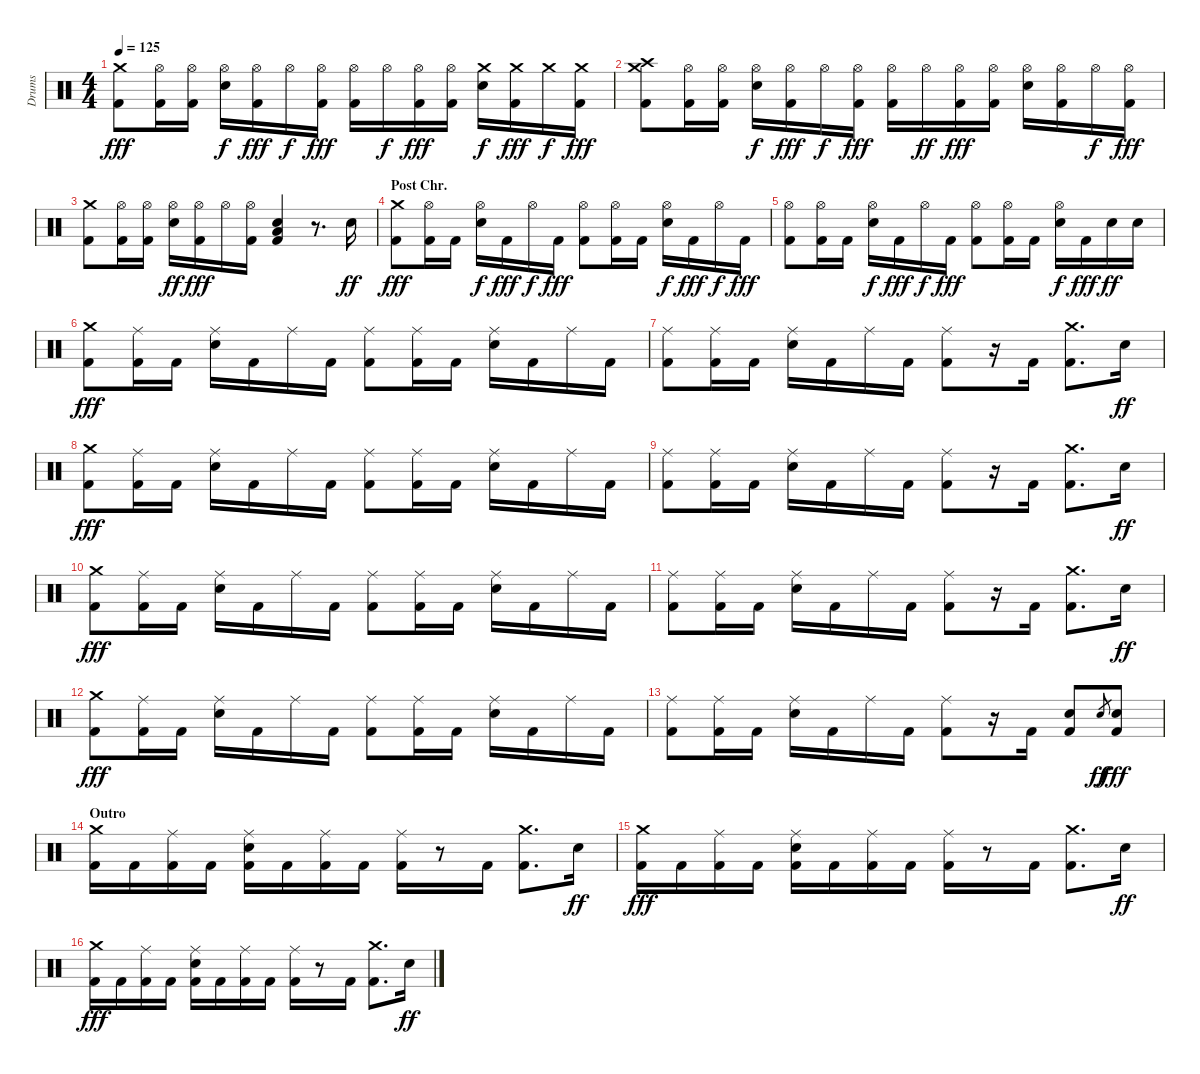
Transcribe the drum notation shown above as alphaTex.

\track ("Drums" "Drums") {instrument percussion}
\staff {score}
\articulation defaults
\ts (4 4)
\tempo 125
\clef neutral
\ks c
("Crash medium (hit)" "Kick (hit) 2").8{dy fff} ("Hi-Hat (open)" "Kick (hit) 2").16 ("Hi-Hat (open)" "Kick (hit) 2").16 ("Hi-Hat (open)" "Electric Snare (hit)").16{dy f} ("Hi-Hat (open)" "Kick (hit) 2").16{dy fff} "Hi-Hat (open)".16{dy f} ("Hi-Hat (open)" "Kick (hit) 2").16{dy fff} ("Hi-Hat (open)" "Kick (hit) 2").16 "Hi-Hat (open)".16{dy f} ("Hi-Hat (open)" "Kick (hit) 2").16{dy fff} ("Hi-Hat (open)" "Kick (hit) 2").16 ("Crash medium (hit)" "Electric Snare (hit)").16{dy f} ("Crash medium (hit)" "Kick (hit) 2").16{dy fff} "Crash medium (hit)".16{dy f} ("Crash medium (hit)" "Kick (hit) 2").16{dy fff} |
("Crash medium (hit)" "Crash high (hit)" "Kick (hit) 2").8 ("Hi-Hat (open)" "Kick (hit) 2").16 ("Hi-Hat (open)" "Kick (hit) 2").16 ("Hi-Hat (open)" "Electric Snare (hit)").16{dy f} ("Hi-Hat (open)" "Kick (hit) 2").16{dy fff} "Hi-Hat (open)".16{dy f} ("Hi-Hat (open)" "Kick (hit) 2").16{dy fff} ("Hi-Hat (open)" "Kick (hit) 2").16 "Hi-Hat (open)".16{dy ff} ("Hi-Hat (open)" "Kick (hit) 2").16{dy fff} ("Hi-Hat (open)" "Kick (hit) 2").16 ("Hi-Hat (open)" "Electric Snare (hit)").16 ("Hi-Hat (open)" "Kick (hit) 2").16 "Hi-Hat (open)".16{dy f} ("Hi-Hat (open)" "Kick (hit) 2").16{dy fff} |
("Crash medium (hit)" "Kick (hit) 2").8 ("Hi-Hat (open)" "Kick (hit) 2").16 ("Hi-Hat (open)" "Kick (hit) 2").16 ("Hi-Hat (open)" "Electric Snare (hit)").16{dy ff} ("Hi-Hat (open)" "Kick (hit) 2").16{dy fff} "Hi-Hat (open)".16 ("Hi-Hat (open)" "Kick (hit) 2").16 ("Electric Snare (hit)" "Low Tom (hit)" "Kick (hit) 2").4 r.8{d} "Electric Snare (hit)".16{dy ff} |
\section ("" "Post Chr.")
("Crash medium (hit)" "Kick (hit) 2").8{dy fff} ("Hi-Hat (open)" "Kick (hit) 2").16 "Kick (hit) 2".16 ("Hi-Hat (open)" "Electric Snare (hit)").16{dy f} "Kick (hit) 2".16{dy fff} "Hi-Hat (open)".16{dy f} "Kick (hit) 2".16{dy fff} ("Hi-Hat (open)" "Kick (hit) 2").8 ("Hi-Hat (open)" "Kick (hit) 2").16 "Kick (hit) 2".16 ("Hi-Hat (open)" "Electric Snare (hit)").16{dy f} "Kick (hit) 2".16{dy fff} "Hi-Hat (open)".16{dy f} "Kick (hit) 2".16{dy fff} |
("Hi-Hat (open)" "Kick (hit) 2").8 ("Hi-Hat (open)" "Kick (hit) 2").16 "Kick (hit) 2".16 ("Hi-Hat (open)" "Electric Snare (hit)").16{dy f} "Kick (hit) 2".16{dy fff} "Hi-Hat (open)".16{dy f} "Kick (hit) 2".16{dy fff} ("Hi-Hat (open)" "Kick (hit) 2").8 ("Hi-Hat (open)" "Kick (hit) 2").16 "Kick (hit) 2".16 ("Hi-Hat (open)" "Electric Snare (hit)").16{dy f} "Kick (hit) 2".16{dy fff} "Electric Snare (hit)".16{dy ff} "Electric Snare (hit)".16 |
("Crash medium (hit)" "Kick (hit) 2").8{dy fff} ("Ride (middle)" "Kick (hit) 2").16 "Kick (hit) 2".16 ("Ride (middle)" "Electric Snare (hit)").16 "Kick (hit) 2".16 "Ride (middle)".16 "Kick (hit) 2".16 ("Ride (middle)" "Kick (hit) 2").8 ("Ride (middle)" "Kick (hit) 2").16 "Kick (hit) 2".16 ("Ride (middle)" "Electric Snare (hit)").16 "Kick (hit) 2".16 "Ride (middle)".16 "Kick (hit) 2".16 |
("Ride (middle)" "Kick (hit) 2").8 ("Ride (middle)" "Kick (hit) 2").16 "Kick (hit) 2".16 ("Ride (middle)" "Electric Snare (hit)").16 "Kick (hit) 2".16 "Ride (middle)".16 "Kick (hit) 2".16 ("Ride (middle)" "Kick (hit) 2").8 r.16 "Kick (hit) 2".16 ("Crash medium (hit)" "Kick (hit) 2").8{d} "Electric Snare (hit)".16{dy ff} |
("Crash medium (hit)" "Kick (hit) 2").8{dy fff} ("Ride (middle)" "Kick (hit) 2").16 "Kick (hit) 2".16 ("Ride (middle)" "Electric Snare (hit)").16 "Kick (hit) 2".16 "Ride (middle)".16 "Kick (hit) 2".16 ("Ride (middle)" "Kick (hit) 2").8 ("Ride (middle)" "Kick (hit) 2").16 "Kick (hit) 2".16 ("Ride (middle)" "Electric Snare (hit)").16 "Kick (hit) 2".16 "Ride (middle)".16 "Kick (hit) 2".16 |
("Ride (middle)" "Kick (hit) 2").8 ("Ride (middle)" "Kick (hit) 2").16 "Kick (hit) 2".16 ("Ride (middle)" "Electric Snare (hit)").16 "Kick (hit) 2".16 "Ride (middle)".16 "Kick (hit) 2".16 ("Ride (middle)" "Kick (hit) 2").8 r.16 "Kick (hit) 2".16 ("Crash medium (hit)" "Kick (hit) 2").8{d} "Electric Snare (hit)".16{dy ff} |
("Crash medium (hit)" "Kick (hit) 2").8{dy fff} ("Ride (middle)" "Kick (hit) 2").16 "Kick (hit) 2".16 ("Ride (middle)" "Electric Snare (hit)").16 "Kick (hit) 2".16 "Ride (middle)".16 "Kick (hit) 2".16 ("Ride (middle)" "Kick (hit) 2").8 ("Ride (middle)" "Kick (hit) 2").16 "Kick (hit) 2".16 ("Ride (middle)" "Electric Snare (hit)").16 "Kick (hit) 2".16 "Ride (middle)".16 "Kick (hit) 2".16 |
("Ride (middle)" "Kick (hit) 2").8 ("Ride (middle)" "Kick (hit) 2").16 "Kick (hit) 2".16 ("Ride (middle)" "Electric Snare (hit)").16 "Kick (hit) 2".16 "Ride (middle)".16 "Kick (hit) 2".16 ("Ride (middle)" "Kick (hit) 2").8 r.16 "Kick (hit) 2".16 ("Crash medium (hit)" "Kick (hit) 2").8{d} "Electric Snare (hit)".16{dy ff} |
("Crash medium (hit)" "Kick (hit) 2").8{dy fff} ("Ride (middle)" "Kick (hit) 2").16 "Kick (hit) 2".16 ("Ride (middle)" "Electric Snare (hit)").16 "Kick (hit) 2".16 "Ride (middle)".16 "Kick (hit) 2".16 ("Ride (middle)" "Kick (hit) 2").8 ("Ride (middle)" "Kick (hit) 2").16 "Kick (hit) 2".16 ("Ride (middle)" "Electric Snare (hit)").16 "Kick (hit) 2".16 "Ride (middle)".16 "Kick (hit) 2".16 |
("Ride (middle)" "Kick (hit) 2").8 ("Ride (middle)" "Kick (hit) 2").16 "Kick (hit) 2".16 ("Ride (middle)" "Electric Snare (hit)").16 "Kick (hit) 2".16 "Ride (middle)".16 "Kick (hit) 2".16 ("Ride (middle)" "Kick (hit) 2").8 r.16 "Kick (hit) 2".16 ("Electric Snare (hit)" "Kick (hit) 2").8 "Electric Snare (hit)".8{gr dy ff} ("Electric Snare (hit)" "Kick (hit) 2").8{dy fff} |
\section ("" "Outro")
("Crash medium (hit)" "Kick (hit) 2").16 "Kick (hit) 2".16 ("Ride (middle)" "Kick (hit) 2").16 "Kick (hit) 2".16 ("Ride (middle)" "Electric Snare (hit)" "Kick (hit) 2").16 "Kick (hit) 2".16 ("Ride (middle)" "Kick (hit) 2").16 "Kick (hit) 2".16 ("Ride (middle)" "Kick (hit) 2").16 r.8 "Kick (hit) 2".16 ("Crash medium (hit)" "Kick (hit) 2").8{d} "Electric Snare (hit)".16{dy ff} |
("Crash medium (hit)" "Kick (hit) 2").16{dy fff} "Kick (hit) 2".16 ("Ride (middle)" "Kick (hit) 2").16 "Kick (hit) 2".16 ("Ride (middle)" "Electric Snare (hit)" "Kick (hit) 2").16 "Kick (hit) 2".16 ("Ride (middle)" "Kick (hit) 2").16 "Kick (hit) 2".16 ("Ride (middle)" "Kick (hit) 2").16 r.8 "Kick (hit) 2".16 ("Crash medium (hit)" "Kick (hit) 2").8{d} "Electric Snare (hit)".16{dy ff} |
("Crash medium (hit)" "Kick (hit) 2").16{dy fff} "Kick (hit) 2".16 ("Ride (middle)" "Kick (hit) 2").16 "Kick (hit) 2".16 ("Ride (middle)" "Electric Snare (hit)" "Kick (hit) 2").16 "Kick (hit) 2".16 ("Ride (middle)" "Kick (hit) 2").16 "Kick (hit) 2".16 ("Ride (middle)" "Kick (hit) 2").16 r.8 "Kick (hit) 2".16 ("Crash medium (hit)" "Kick (hit) 2").8{d} "Electric Snare (hit)".16{dy ff}
